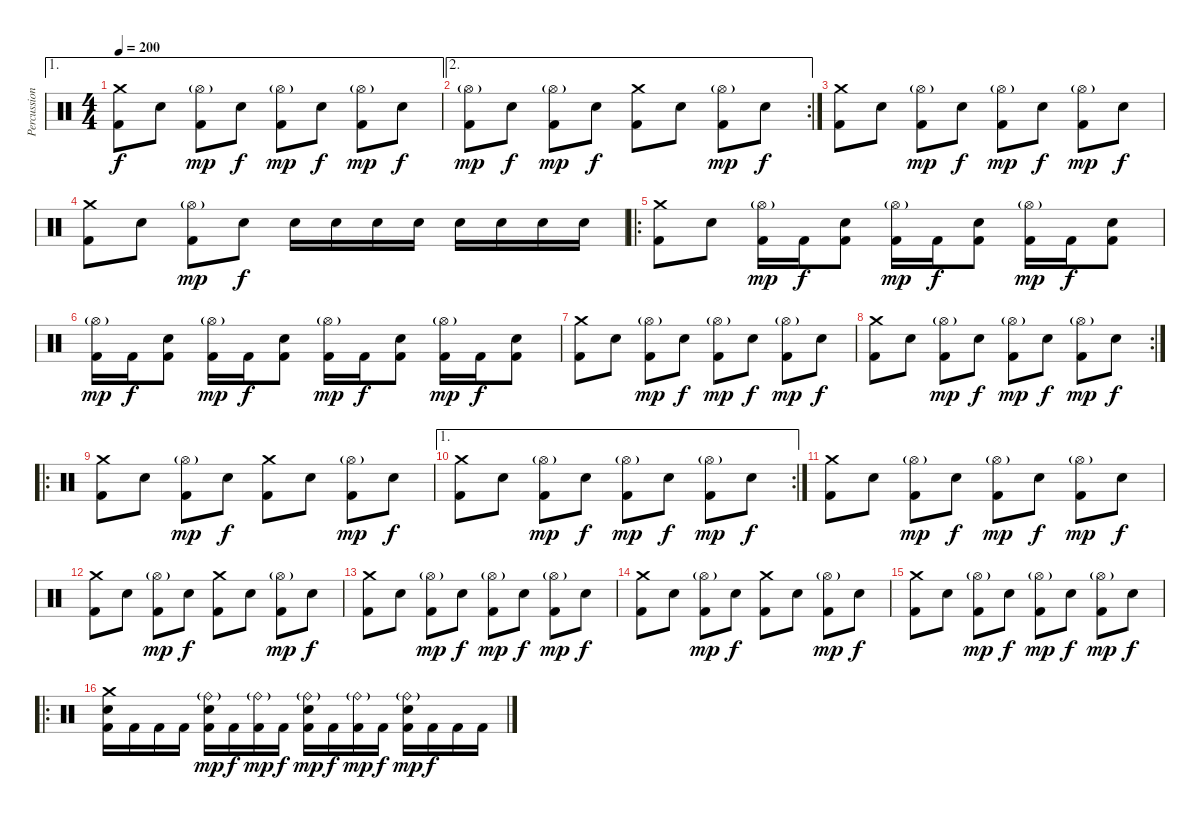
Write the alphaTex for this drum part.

\track ("Percussion" "Percussion") {instrument percussion}
\staff {score}
\articulation defaults
\ae 1
\ts (4 4)
\tempo 200
\clef neutral
\ks c
("Crash medium (hit)" "Kick (hit) 2").8{dy f} "Electric Snare (hit)".8 ("Hi-Hat (open)"{g} "Kick (hit) 2").8{dy mp} "Electric Snare (hit)".8{dy f} ("Hi-Hat (open)"{g} "Kick (hit) 2").8{dy mp} "Electric Snare (hit)".8{dy f} ("Hi-Hat (open)"{g} "Kick (hit) 2").8{dy mp} "Electric Snare (hit)".8{dy f} |
\ae 2
\rc 2
("Hi-Hat (open)"{g} "Kick (hit) 2").8{dy mp} "Electric Snare (hit)".8{dy f} ("Hi-Hat (open)"{g} "Kick (hit) 2").8{dy mp} "Electric Snare (hit)".8{dy f} ("Crash medium (hit)" "Kick (hit) 2").8 "Electric Snare (hit)".8 ("Hi-Hat (open)"{g} "Kick (hit) 2").8{dy mp} "Electric Snare (hit)".8{dy f} |
("Crash medium (hit)" "Kick (hit) 2").8 "Electric Snare (hit)".8 ("Hi-Hat (open)"{g} "Kick (hit) 2").8{dy mp} "Electric Snare (hit)".8{dy f} ("Hi-Hat (open)"{g} "Kick (hit) 2").8{dy mp} "Electric Snare (hit)".8{dy f} ("Hi-Hat (open)"{g} "Kick (hit) 2").8{dy mp} "Electric Snare (hit)".8{dy f} |
("Crash medium (hit)" "Kick (hit) 2").8 "Electric Snare (hit)".8 ("Hi-Hat (open)"{g} "Kick (hit) 2").8{dy mp} "Electric Snare (hit)".8{dy f} "Electric Snare (hit)".16 "Electric Snare (hit)".16 "Electric Snare (hit)".16 "Electric Snare (hit)".16 "Electric Snare (hit)".16 "Electric Snare (hit)".16 "Electric Snare (hit)".16 "Electric Snare (hit)".16 |
\ro
("Crash medium (hit)" "Kick (hit) 2").8 "Electric Snare (hit)".8 ("Hi-Hat (open)"{g} "Kick (hit) 2").16{dy mp} "Kick (hit) 2".16{dy f} ("Electric Snare (hit)" "Kick (hit) 2").8 ("Hi-Hat (open)"{g} "Kick (hit) 2").16{dy mp} "Kick (hit) 2".16{dy f} ("Electric Snare (hit)" "Kick (hit) 2").8 ("Hi-Hat (open)"{g} "Kick (hit) 2").16{dy mp} "Kick (hit) 2".16{dy f} ("Electric Snare (hit)" "Kick (hit) 2").8 |
("Hi-Hat (open)"{g} "Kick (hit) 2").16{dy mp} "Kick (hit) 2".16{dy f} ("Electric Snare (hit)" "Kick (hit) 2").8 ("Hi-Hat (open)"{g} "Kick (hit) 2").16{dy mp} "Kick (hit) 2".16{dy f} ("Electric Snare (hit)" "Kick (hit) 2").8 ("Hi-Hat (open)"{g} "Kick (hit) 2").16{dy mp} "Kick (hit) 2".16{dy f} ("Electric Snare (hit)" "Kick (hit) 2").8 ("Hi-Hat (open)"{g} "Kick (hit) 2").16{dy mp} "Kick (hit) 2".16{dy f} ("Electric Snare (hit)" "Kick (hit) 2").8 |
("Crash medium (hit)" "Kick (hit) 2").8 "Electric Snare (hit)".8 ("Hi-Hat (open)"{g} "Kick (hit) 2").8{dy mp} "Electric Snare (hit)".8{dy f} ("Hi-Hat (open)"{g} "Kick (hit) 2").8{dy mp} "Electric Snare (hit)".8{dy f} ("Hi-Hat (open)"{g} "Kick (hit) 2").8{dy mp} "Electric Snare (hit)".8{dy f} |
\rc 2
("Crash medium (hit)" "Kick (hit) 2").8 "Electric Snare (hit)".8 ("Hi-Hat (open)"{g} "Kick (hit) 2").8{dy mp} "Electric Snare (hit)".8{dy f} ("Hi-Hat (open)"{g} "Kick (hit) 2").8{dy mp} "Electric Snare (hit)".8{dy f} ("Hi-Hat (open)"{g} "Kick (hit) 2").8{dy mp} "Electric Snare (hit)".8{dy f} |
\ro
("Crash medium (hit)" "Kick (hit) 2").8 "Electric Snare (hit)".8 ("Hi-Hat (open)"{g} "Kick (hit) 2").8{dy mp} "Electric Snare (hit)".8{dy f} ("Crash medium (hit)" "Kick (hit) 2").8 "Electric Snare (hit)".8 ("Hi-Hat (open)"{g} "Kick (hit) 2").8{dy mp} "Electric Snare (hit)".8{dy f} |
\ae 1
\rc 2
("Crash medium (hit)" "Kick (hit) 2").8 "Electric Snare (hit)".8 ("Hi-Hat (open)"{g} "Kick (hit) 2").8{dy mp} "Electric Snare (hit)".8{dy f} ("Hi-Hat (open)"{g} "Kick (hit) 2").8{dy mp} "Electric Snare (hit)".8{dy f} ("Hi-Hat (open)"{g} "Kick (hit) 2").8{dy mp} "Electric Snare (hit)".8{dy f} |
("Crash medium (hit)" "Kick (hit) 2").8 "Electric Snare (hit)".8 ("Hi-Hat (open)"{g} "Kick (hit) 2").8{dy mp} "Electric Snare (hit)".8{dy f} ("Hi-Hat (open)"{g} "Kick (hit) 2").8{dy mp} "Electric Snare (hit)".8{dy f} ("Hi-Hat (open)"{g} "Kick (hit) 2").8{dy mp} "Electric Snare (hit)".8{dy f} |
("Crash medium (hit)" "Kick (hit) 2").8 "Electric Snare (hit)".8 ("Hi-Hat (open)"{g} "Kick (hit) 2").8{dy mp} "Electric Snare (hit)".8{dy f} ("Crash medium (hit)" "Kick (hit) 2").8 "Electric Snare (hit)".8 ("Hi-Hat (open)"{g} "Kick (hit) 2").8{dy mp} "Electric Snare (hit)".8{dy f} |
("Crash medium (hit)" "Kick (hit) 2").8 "Electric Snare (hit)".8 ("Hi-Hat (open)"{g} "Kick (hit) 2").8{dy mp} "Electric Snare (hit)".8{dy f} ("Hi-Hat (open)"{g} "Kick (hit) 2").8{dy mp} "Electric Snare (hit)".8{dy f} ("Hi-Hat (open)"{g} "Kick (hit) 2").8{dy mp} "Electric Snare (hit)".8{dy f} |
("Crash medium (hit)" "Kick (hit) 2").8 "Electric Snare (hit)".8 ("Hi-Hat (open)"{g} "Kick (hit) 2").8{dy mp} "Electric Snare (hit)".8{dy f} ("Crash medium (hit)" "Kick (hit) 2").8 "Electric Snare (hit)".8 ("Hi-Hat (open)"{g} "Kick (hit) 2").8{dy mp} "Electric Snare (hit)".8{dy f} |
("Crash medium (hit)" "Kick (hit) 2").8 "Electric Snare (hit)".8 ("Hi-Hat (open)"{g} "Kick (hit) 2").8{dy mp} "Electric Snare (hit)".8{dy f} ("Hi-Hat (open)"{g} "Kick (hit) 2").8{dy mp} "Electric Snare (hit)".8{dy f} ("Hi-Hat (open)"{g} "Kick (hit) 2").8{dy mp} "Electric Snare (hit)".8{dy f} |
\ro
("Crash medium (hit)" "Electric Snare (hit)" "Kick (hit) 2").16 "Kick (hit) 2".16 "Kick (hit) 2".16 "Kick (hit) 2".16 ("Ride (bell)"{g} "Electric Snare (hit)" "Kick (hit) 2").16{dy mp} "Kick (hit) 2".16{dy f} ("Ride (bell)"{g} "Kick (hit) 2").16{dy mp} "Kick (hit) 2".16{dy f} ("Ride (bell)"{g} "Electric Snare (hit)" "Kick (hit) 2").16{dy mp} "Kick (hit) 2".16{dy f} ("Ride (bell)"{g} "Kick (hit) 2").16{dy mp} "Kick (hit) 2".16{dy f} ("Ride (bell)"{g} "Electric Snare (hit)" "Kick (hit) 2").16{dy mp} "Kick (hit) 2".16{dy f} "Kick (hit) 2".16 "Kick (hit) 2".16
